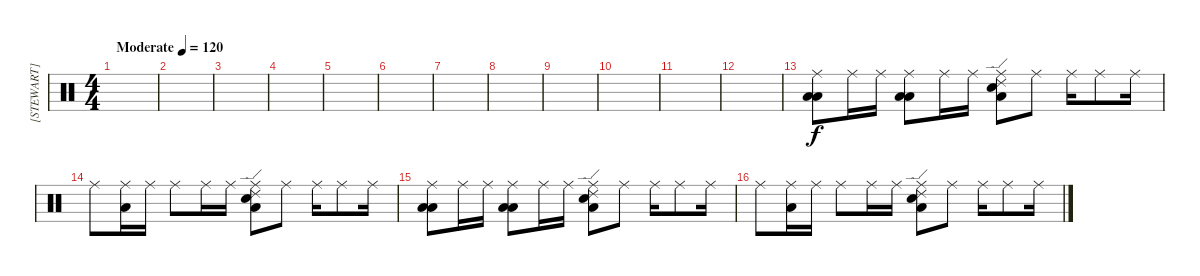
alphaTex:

\track ("[STEWART]" "[STEWART]") {instrument percussion}
\staff {score}
\articulation defaults
\ts (4 4)
\tempo (120 "Moderate")
\clef neutral
\ks c
|
|
|
|
|
|
|
|
|
|
|
|
("Low Tom (hit)" "Low Floor Tom (hit)" "Ride (middle)").8{volume 13} "Ride (middle)".16 "Ride (middle)".16 ("Low Tom (hit)" "Low Floor Tom (hit)" "Ride (middle)").8 "Ride (middle)".16 "Ride (middle)".16 ("Ride (edge) 2" "Electric Snare (hit)" "Low Floor Tom (hit)" "Ride (middle)").8 "Ride (middle)".8 "Ride (middle)".16 "Ride (middle)".8 "Ride (middle)".16 |
"Ride (middle)".8 ("Low Tom (hit)" "Ride (middle)").16 "Ride (middle)".16 "Ride (middle)".8 "Ride (middle)".16 "Ride (middle)".16 ("Ride (edge) 2" "Electric Snare (hit)" "Low Floor Tom (hit)" "Ride (middle)").8 "Ride (middle)".8 "Ride (middle)".16 "Ride (middle)".8 "Ride (middle)".16 |
("Low Tom (hit)" "Low Floor Tom (hit)" "Ride (middle)").8 "Ride (middle)".16 "Ride (middle)".16 ("Low Tom (hit)" "Low Floor Tom (hit)" "Ride (middle)").8 "Ride (middle)".16 "Ride (middle)".16 ("Ride (edge) 2" "Electric Snare (hit)" "Low Floor Tom (hit)" "Ride (middle)").8 "Ride (middle)".8 "Ride (middle)".16 "Ride (middle)".8 "Ride (middle)".16 |
"Ride (middle)".8 ("Low Tom (hit)" "Ride (middle)").16 "Ride (middle)".16 "Ride (middle)".8 "Ride (middle)".16 "Ride (middle)".16 ("Ride (edge) 2" "Electric Snare (hit)" "Low Floor Tom (hit)" "Ride (middle)").8 "Ride (middle)".8 "Ride (middle)".16 "Ride (middle)".8 "Ride (middle)".16
